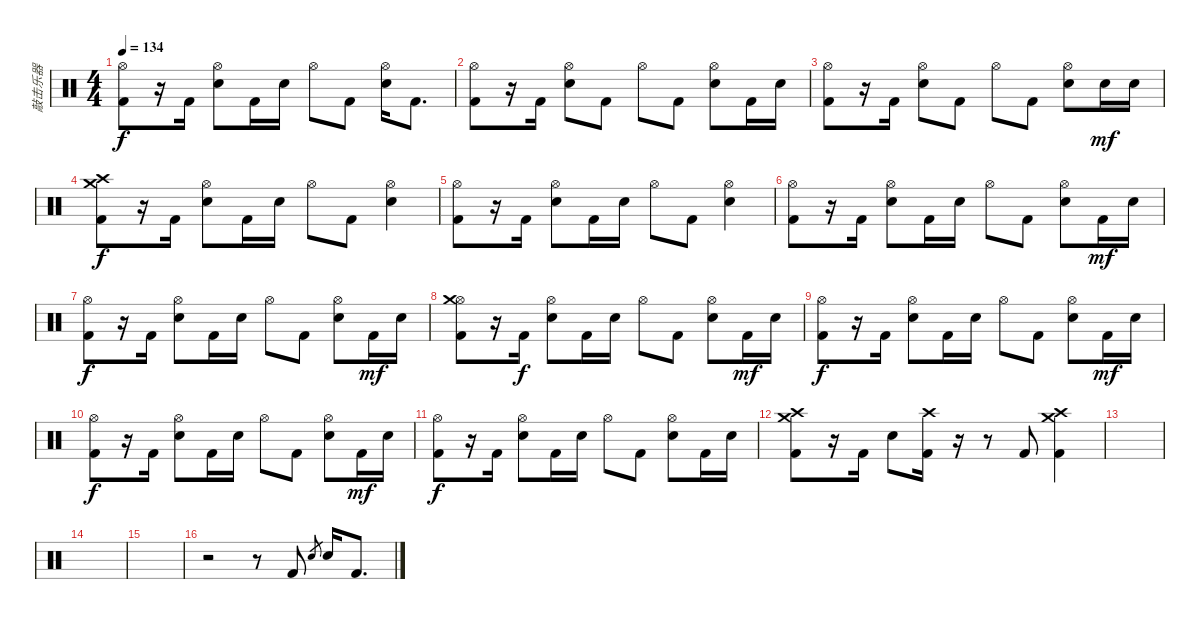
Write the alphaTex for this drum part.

\track ("敲击乐器" "敲击乐器") {instrument percussion}
\staff {score}
\articulation defaults
\ts (4 4)
\tempo 134
\clef neutral
\ks c
("Hi-Hat (open)" "Kick (hit) 2").8{dy f} r.16 "Kick (hit) 2".16 ("Hi-Hat (open)" "Electric Snare (hit)").8 "Kick (hit) 2".16 "Electric Snare (hit)".16 "Hi-Hat (open)".8 "Kick (hit) 2".8 ("Hi-Hat (open)" "Electric Snare (hit)").16 "Kick (hit) 2".8{d} |
("Hi-Hat (open)" "Kick (hit) 2").8 r.16 "Kick (hit) 2".16 ("Hi-Hat (open)" "Electric Snare (hit)").8 "Kick (hit) 2".8 "Hi-Hat (open)".8 "Kick (hit) 2".8 ("Hi-Hat (open)" "Electric Snare (hit)").8 "Kick (hit) 2".16 "Electric Snare (hit)".16 |
("Hi-Hat (open)" "Kick (hit) 2").8 r.16 "Kick (hit) 2".16 ("Hi-Hat (open)" "Electric Snare (hit)").8 "Kick (hit) 2".8 "Hi-Hat (open)".8 "Kick (hit) 2".8 ("Hi-Hat (open)" "Electric Snare (hit)").8 "Electric Snare (hit)".16{dy mf} "Electric Snare (hit)".16 |
("Crash high (hit)" "Crash medium (hit)" "Kick (hit) 2").8{dy f} r.16 "Kick (hit) 2".16 ("Hi-Hat (open)" "Electric Snare (hit)").8 "Kick (hit) 2".16 "Electric Snare (hit)".16 "Hi-Hat (open)".8 "Kick (hit) 2".8 ("Hi-Hat (open)" "Electric Snare (hit)").4 |
("Hi-Hat (open)" "Kick (hit) 2").8 r.16 "Kick (hit) 2".16 ("Hi-Hat (open)" "Electric Snare (hit)").8 "Kick (hit) 2".16 "Electric Snare (hit)".16 "Hi-Hat (open)".8 "Kick (hit) 2".8 ("Hi-Hat (open)" "Electric Snare (hit)").4 |
("Hi-Hat (open)" "Kick (hit) 2").8 r.16 "Kick (hit) 2".16 ("Hi-Hat (open)" "Electric Snare (hit)").8 "Kick (hit) 2".16 "Electric Snare (hit)".16 "Hi-Hat (open)".8 "Kick (hit) 2".8 ("Hi-Hat (open)" "Electric Snare (hit)").8 "Kick (hit) 2".16{dy mf} "Electric Snare (hit)".16 |
("Hi-Hat (open)" "Kick (hit) 2").8{dy f} r.16 "Kick (hit) 2".16 ("Hi-Hat (open)" "Electric Snare (hit)").8 "Kick (hit) 2".16 "Electric Snare (hit)".16 "Hi-Hat (open)".8 "Kick (hit) 2".8 ("Hi-Hat (open)" "Electric Snare (hit)").8 "Kick (hit) 2".16{dy mf} "Electric Snare (hit)".16 |
("Hi-Hat (open)" "Crash medium (hit)" "Kick (hit) 2").8 r.16 "Kick (hit) 2".16{dy f} ("Hi-Hat (open)" "Electric Snare (hit)").8 "Kick (hit) 2".16 "Electric Snare (hit)".16 "Hi-Hat (open)".8 "Kick (hit) 2".8 ("Hi-Hat (open)" "Electric Snare (hit)").8 "Kick (hit) 2".16{dy mf} "Electric Snare (hit)".16 |
("Hi-Hat (open)" "Kick (hit) 2").8{dy f} r.16 "Kick (hit) 2".16 ("Hi-Hat (open)" "Electric Snare (hit)").8 "Kick (hit) 2".16 "Electric Snare (hit)".16 "Hi-Hat (open)".8 "Kick (hit) 2".8 ("Hi-Hat (open)" "Electric Snare (hit)").8 "Kick (hit) 2".16{dy mf} "Electric Snare (hit)".16 |
("Hi-Hat (open)" "Kick (hit) 2").8{dy f} r.16 "Kick (hit) 2".16 ("Hi-Hat (open)" "Electric Snare (hit)").8 "Kick (hit) 2".16 "Electric Snare (hit)".16 "Hi-Hat (open)".8 "Kick (hit) 2".8 ("Hi-Hat (open)" "Electric Snare (hit)").8 "Kick (hit) 2".16{dy mf} "Electric Snare (hit)".16 |
("Hi-Hat (open)" "Kick (hit) 2").8{dy f} r.16 "Kick (hit) 2".16 ("Hi-Hat (open)" "Electric Snare (hit)").8 "Kick (hit) 2".16 "Electric Snare (hit)".16 "Hi-Hat (open)".8 "Kick (hit) 2".8 ("Hi-Hat (open)" "Electric Snare (hit)").8 "Kick (hit) 2".16 "Electric Snare (hit)".16 |
("Crash high (hit)" "Crash medium (hit)" "Kick (hit) 2").8 r.16 "Kick (hit) 2".16 "Electric Snare (hit)".8 ("Crash high (hit)" "Kick (hit) 2").16 r.16 r.8 "Kick (hit) 2".8 ("Crash medium (hit)" "Crash high (hit)" "Kick (hit) 2").4 |
|
|
|
r.2 r.8 "Kick (hit) 2".8 "Electric Snare (hit)".8{gr} "Electric Snare (hit)".16 "Kick (hit) 2".8{d}
